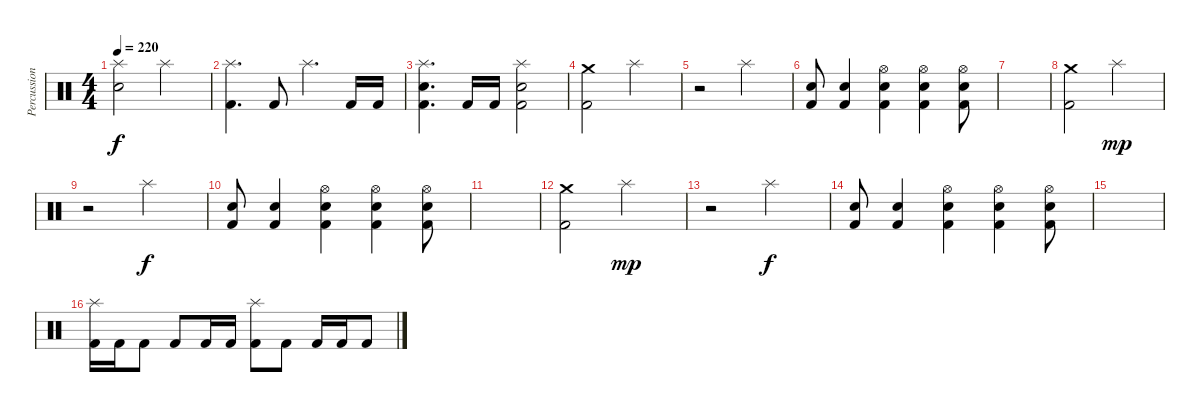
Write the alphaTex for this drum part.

\track ("Percussions" "Percussion") {instrument percussion}
\staff {score}
\articulation defaults
\ts (4 4)
\tempo 220
\clef neutral
\ks c
("Splash (hit)" "Electric Snare (hit)").2{dy f} "Splash (hit)".2 |
("Splash (hit)" "Kick (hit) 2").4{d} "Kick (hit) 2".8 "Splash (hit)".4{d} "Kick (hit) 2".16 "Kick (hit) 2".16 |
("Splash (hit)" "Electric Snare (hit)" "Kick (hit) 2").4{d} "Kick (hit) 2".16 "Kick (hit) 2".16 ("Splash (hit)" "Electric Snare (hit)" "Kick (hit) 2").2 |
("Crash medium (hit)" "Kick (hit) 2").2 "Splash (hit)".2 |
r.2 "Splash (hit)".2 |
("Electric Snare (hit)" "Kick (hit) 2").8 ("Electric Snare (hit)" "Kick (hit) 2").4 ("Hi-Hat (open)" "Electric Snare (hit)" "Kick (hit) 2").4 ("Hi-Hat (open)" "Electric Snare (hit)" "Kick (hit) 2").4 ("Hi-Hat (open)" "Electric Snare (hit)" "Kick (hit) 2").8 |
|
("Crash medium (hit)" "Kick (hit) 2").2 "Splash (hit)".2{dy mp} |
r.2 "Splash (hit)".2{dy f} |
("Electric Snare (hit)" "Kick (hit) 2").8 ("Electric Snare (hit)" "Kick (hit) 2").4 ("Hi-Hat (open)" "Electric Snare (hit)" "Kick (hit) 2").4 ("Hi-Hat (open)" "Electric Snare (hit)" "Kick (hit) 2").4 ("Hi-Hat (open)" "Electric Snare (hit)" "Kick (hit) 2").8 |
|
("Crash medium (hit)" "Kick (hit) 2").2 "Splash (hit)".2{dy mp} |
r.2 "Splash (hit)".2{dy f} |
("Electric Snare (hit)" "Kick (hit) 2").8 ("Electric Snare (hit)" "Kick (hit) 2").4 ("Hi-Hat (open)" "Electric Snare (hit)" "Kick (hit) 2").4 ("Hi-Hat (open)" "Electric Snare (hit)" "Kick (hit) 2").4 ("Hi-Hat (open)" "Electric Snare (hit)" "Kick (hit) 2").8 |
|
("Splash (hit)" "Kick (hit) 2").16 "Kick (hit) 2".16 "Kick (hit) 2".8 "Kick (hit) 2".8 "Kick (hit) 2".16 "Kick (hit) 2".16 ("Splash (hit)" "Kick (hit) 2").8 "Kick (hit) 2".8 "Kick (hit) 2".16 "Kick (hit) 2".16 "Kick (hit) 2".8
